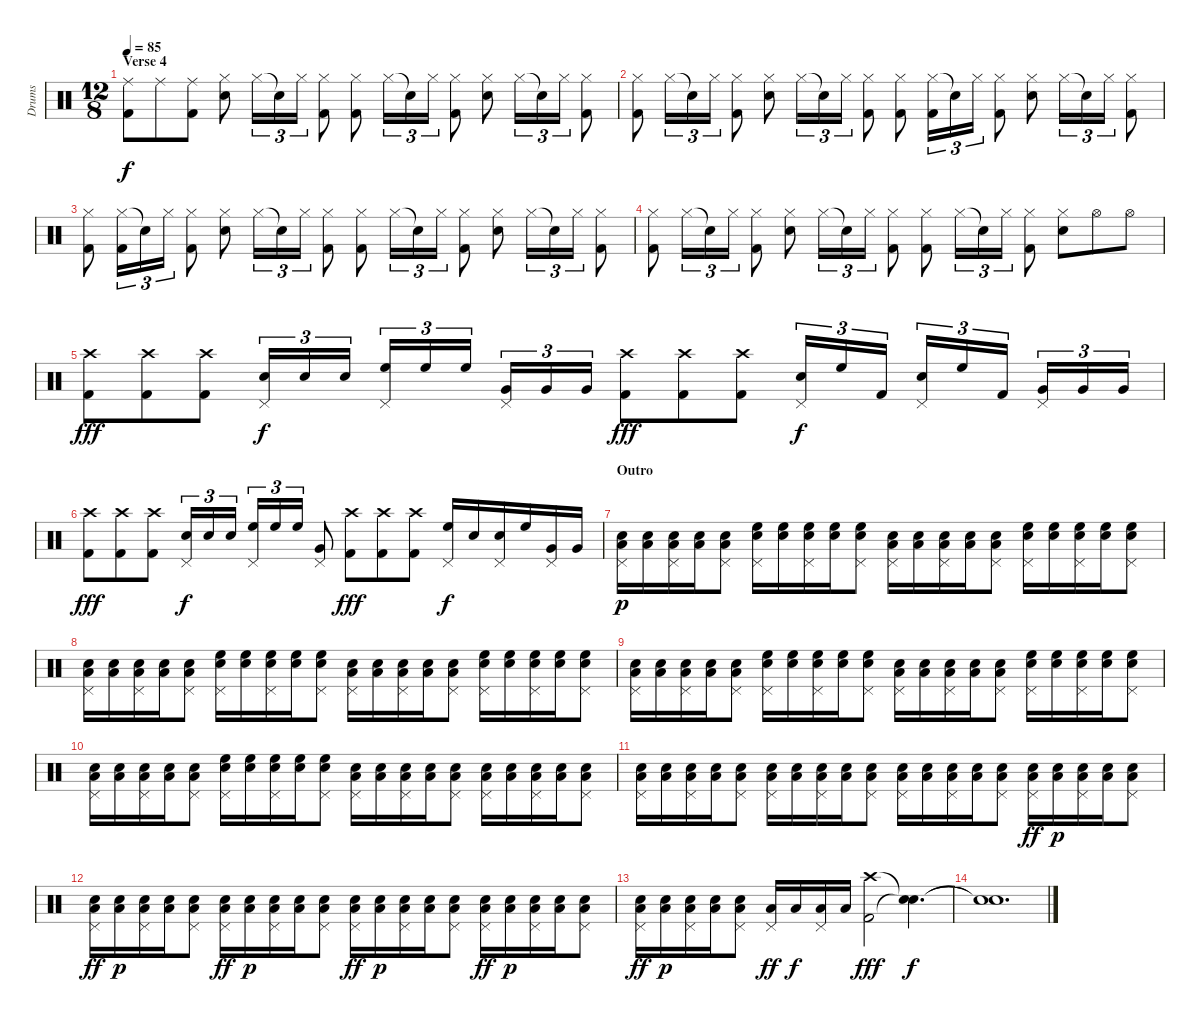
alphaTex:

\track ("Drums" "Drums") {instrument percussion}
\staff {score}
\articulation defaults
\ts (12 8)
\section ("" "Verse 4")
\tempo 85
\clef neutral
\ks c
("Ride (middle)" "Kick (hit) 2").8{dy f volume 10} "Ride (middle)".8 ("Ride (middle)" "Kick (hit) 2").8 ("Hi-Hat (closed)" "Snare (hit) 2").8 "Hi-Hat (closed)".16{tu (3 2)} "Snare (hit)"{t}.16{tu (3 2)} "Hi-Hat (closed)".16{tu (3 2)} ("Hi-Hat (closed)" "Kick (hit) 2").8 ("Hi-Hat (closed)" "Kick (hit) 2").8 "Hi-Hat (closed)".16{tu (3 2)} "Snare (hit)"{t}.16{tu (3 2)} "Hi-Hat (closed)".16{tu (3 2)} ("Hi-Hat (closed)" "Kick (hit) 2").8 ("Hi-Hat (closed)" "Snare (hit) 2").8 "Hi-Hat (closed)".16{tu (3 2)} "Snare (hit)"{t}.16{tu (3 2)} "Hi-Hat (closed)".16{tu (3 2)} ("Hi-Hat (closed)" "Kick (hit) 2").8 |
("Hi-Hat (closed)" "Kick (hit) 2").8 "Hi-Hat (closed)".16{tu (3 2)} "Snare (hit)"{t}.16{tu (3 2)} "Hi-Hat (closed)".16{tu (3 2)} ("Hi-Hat (closed)" "Kick (hit) 2").8 ("Hi-Hat (closed)" "Snare (hit) 2").8 "Hi-Hat (closed)".16{tu (3 2)} "Snare (hit)"{t}.16{tu (3 2)} "Hi-Hat (closed)".16{tu (3 2)} ("Hi-Hat (closed)" "Kick (hit) 2").8 ("Hi-Hat (closed)" "Kick (hit) 2").8 ("Hi-Hat (closed)" "Kick (hit) 2").16{tu (3 2)} "Snare (hit)"{t}.16{tu (3 2)} "Hi-Hat (closed)".16{tu (3 2)} ("Hi-Hat (closed)" "Kick (hit) 2").8 ("Hi-Hat (closed)" "Snare (hit) 2").8 "Hi-Hat (closed)".16{tu (3 2)} "Snare (hit)"{t}.16{tu (3 2)} "Hi-Hat (closed)".16{tu (3 2)} ("Hi-Hat (closed)" "Kick (hit) 2").8 |
("Hi-Hat (closed)" "Kick (hit) 2").8 ("Hi-Hat (closed)" "Kick (hit) 2").16{tu (3 2)} "Snare (hit)"{t}.16{tu (3 2)} "Hi-Hat (closed)".16{tu (3 2)} ("Hi-Hat (closed)" "Kick (hit) 2").8 ("Hi-Hat (closed)" "Snare (hit) 2").8 "Hi-Hat (closed)".16{tu (3 2)} "Snare (hit)"{t}.16{tu (3 2)} "Hi-Hat (closed)".16{tu (3 2)} ("Hi-Hat (closed)" "Kick (hit) 2").8 ("Hi-Hat (closed)" "Kick (hit) 2").8 "Hi-Hat (closed)".16{tu (3 2)} "Snare (hit)"{t}.16{tu (3 2)} "Hi-Hat (closed)".16{tu (3 2)} ("Hi-Hat (closed)" "Kick (hit) 2").8 ("Hi-Hat (closed)" "Snare (hit) 2").8 "Hi-Hat (closed)".16{tu (3 2)} "Snare (hit)"{t}.16{tu (3 2)} "Hi-Hat (closed)".16{tu (3 2)} ("Hi-Hat (closed)" "Kick (hit) 2").8 |
("Hi-Hat (closed)" "Kick (hit) 2").8 "Hi-Hat (closed)".16{tu (3 2)} "Snare (hit)"{t}.16{tu (3 2)} "Hi-Hat (closed)".16{tu (3 2)} ("Hi-Hat (closed)" "Kick (hit) 2").8 ("Hi-Hat (closed)" "Snare (hit) 2").8 "Hi-Hat (closed)".16{tu (3 2)} "Snare (hit)"{t}.16{tu (3 2)} "Hi-Hat (closed)".16{tu (3 2)} ("Hi-Hat (closed)" "Kick (hit) 2").8 ("Hi-Hat (closed)" "Kick (hit) 2").8 "Hi-Hat (closed)".16{tu (3 2)} "Snare (hit)"{t}.16{tu (3 2)} "Hi-Hat (closed)".16{tu (3 2)} ("Hi-Hat (closed)" "Kick (hit) 2").8 ("Hi-Hat (closed)" "Snare (hit) 2").8 "Hi-Hat (open)".8 "Hi-Hat (open)".8 |
("Crash high (hit)" "Kick (hit) 2").8{dy fff volume 16} ("Crash high (hit)" "Kick (hit) 2").8 ("Crash high (hit)" "Kick (hit) 2").8 ("Pedal Hi-Hat (hit)" "Snare (hit) 2").16{tu (3 2) dy f} "Snare (hit) 2".16{tu (3 2)} "Snare (hit) 2".16{tu (3 2)} ("Pedal Hi-Hat (hit)" "High Floor Tom (hit)").16{tu (3 2)} "High Floor Tom (hit)".16{tu (3 2)} "High Floor Tom (hit)".16{tu (3 2)} ("Pedal Hi-Hat (hit)" "Very Low Tom (hit)").16{tu (3 2)} "Very Low Tom (hit)".16{tu (3 2)} "Very Low Tom (hit)".16{tu (3 2)} ("Crash high (hit)" "Kick (hit) 2").8{dy fff} ("Crash high (hit)" "Kick (hit) 2").8 ("Crash high (hit)" "Kick (hit) 2").8 ("Pedal Hi-Hat (hit)" "Snare (hit) 2").16{tu (3 2) dy f} "High Floor Tom (hit)".16{tu (3 2)} "Kick (hit) 2".16{tu (3 2)} ("Pedal Hi-Hat (hit)" "Snare (hit) 2").16{tu (3 2)} "High Floor Tom (hit)".16{tu (3 2)} "Kick (hit) 2".16{tu (3 2)} ("Pedal Hi-Hat (hit)" "Very Low Tom (hit)").16{tu (3 2)} "Very Low Tom (hit)".16{tu (3 2)} "Very Low Tom (hit)".16{tu (3 2)} |
("Crash high (hit)" "Kick (hit) 2").8{dy fff} ("Crash high (hit)" "Kick (hit) 2").8 ("Crash high (hit)" "Kick (hit) 2").8 ("Pedal Hi-Hat (hit)" "Snare (hit) 2").16{tu (3 2) dy f} "Snare (hit) 2".16{tu (3 2)} "Snare (hit) 2".16{tu (3 2)} ("Pedal Hi-Hat (hit)" "High Floor Tom (hit)").16{tu (3 2)} "High Floor Tom (hit)".16{tu (3 2)} "High Floor Tom (hit)".16{tu (3 2)} ("Pedal Hi-Hat (hit)" "Very Low Tom (hit)").8 ("Crash high (hit)" "Kick (hit) 2").8{dy fff} ("Crash high (hit)" "Kick (hit) 2").8 ("Crash high (hit)" "Kick (hit) 2").8 ("Pedal Hi-Hat (hit)" "High Floor Tom (hit)").16{dy f} "Snare (hit) 2".16 ("Pedal Hi-Hat (hit)" "Snare (hit) 2").16 "High Floor Tom (hit)".16 ("Pedal Hi-Hat (hit)" "Very Low Tom (hit)").16 "Very Low Tom (hit)".16 |
\section ("" "Outro")
("Pedal Hi-Hat (hit)" "Low Floor Tom (hit)" "Snare (hit) 2").16{dy p volume 7} ("Low Floor Tom (hit)" "Snare (hit) 2").16 ("Pedal Hi-Hat (hit)" "Low Floor Tom (hit)" "Snare (hit) 2").16 ("Low Floor Tom (hit)" "Snare (hit) 2").16 ("Pedal Hi-Hat (hit)" "Low Floor Tom (hit)" "Snare (hit) 2").8 ("Pedal Hi-Hat (hit)" "High Floor Tom (hit)" "Snare (hit) 2").16 ("High Floor Tom (hit)" "Snare (hit) 2").16 ("Pedal Hi-Hat (hit)" "High Floor Tom (hit)" "Snare (hit) 2").16 ("High Floor Tom (hit)" "Snare (hit) 2").16 ("Pedal Hi-Hat (hit)" "High Floor Tom (hit)" "Snare (hit) 2").8 ("Pedal Hi-Hat (hit)" "Low Floor Tom (hit)" "Snare (hit) 2").16 ("Low Floor Tom (hit)" "Snare (hit) 2").16 ("Pedal Hi-Hat (hit)" "Low Floor Tom (hit)" "Snare (hit) 2").16 ("Low Floor Tom (hit)" "Snare (hit) 2").16 ("Pedal Hi-Hat (hit)" "Low Floor Tom (hit)" "Snare (hit) 2").8 ("Pedal Hi-Hat (hit)" "High Floor Tom (hit)" "Snare (hit) 2").16 ("High Floor Tom (hit)" "Snare (hit) 2").16 ("Pedal Hi-Hat (hit)" "High Floor Tom (hit)" "Snare (hit) 2").16 ("High Floor Tom (hit)" "Snare (hit) 2").16 ("Pedal Hi-Hat (hit)" "High Floor Tom (hit)" "Snare (hit) 2").8 |
("Pedal Hi-Hat (hit)" "Low Floor Tom (hit)" "Snare (hit) 2").16 ("Low Floor Tom (hit)" "Snare (hit) 2").16 ("Pedal Hi-Hat (hit)" "Low Floor Tom (hit)" "Snare (hit) 2").16 ("Low Floor Tom (hit)" "Snare (hit) 2").16 ("Pedal Hi-Hat (hit)" "Low Floor Tom (hit)" "Snare (hit) 2").8 ("Pedal Hi-Hat (hit)" "High Floor Tom (hit)" "Snare (hit) 2").16 ("High Floor Tom (hit)" "Snare (hit) 2").16 ("Pedal Hi-Hat (hit)" "High Floor Tom (hit)" "Snare (hit) 2").16 ("High Floor Tom (hit)" "Snare (hit) 2").16 ("Pedal Hi-Hat (hit)" "High Floor Tom (hit)" "Snare (hit) 2").8 ("Pedal Hi-Hat (hit)" "Low Floor Tom (hit)" "Snare (hit) 2").16 ("Low Floor Tom (hit)" "Snare (hit) 2").16 ("Pedal Hi-Hat (hit)" "Low Floor Tom (hit)" "Snare (hit) 2").16 ("Low Floor Tom (hit)" "Snare (hit) 2").16 ("Pedal Hi-Hat (hit)" "Low Floor Tom (hit)" "Snare (hit) 2").8 ("Pedal Hi-Hat (hit)" "High Floor Tom (hit)" "Snare (hit) 2").16 ("High Floor Tom (hit)" "Snare (hit) 2").16 ("Pedal Hi-Hat (hit)" "High Floor Tom (hit)" "Snare (hit) 2").16 ("High Floor Tom (hit)" "Snare (hit) 2").16 ("Pedal Hi-Hat (hit)" "High Floor Tom (hit)" "Snare (hit) 2").8 |
("Pedal Hi-Hat (hit)" "Low Floor Tom (hit)" "Snare (hit) 2").16 ("Low Floor Tom (hit)" "Snare (hit) 2").16 ("Pedal Hi-Hat (hit)" "Low Floor Tom (hit)" "Snare (hit) 2").16 ("Low Floor Tom (hit)" "Snare (hit) 2").16 ("Pedal Hi-Hat (hit)" "Low Floor Tom (hit)" "Snare (hit) 2").8 ("Pedal Hi-Hat (hit)" "High Floor Tom (hit)" "Snare (hit) 2").16 ("High Floor Tom (hit)" "Snare (hit) 2").16 ("Pedal Hi-Hat (hit)" "High Floor Tom (hit)" "Snare (hit) 2").16 ("High Floor Tom (hit)" "Snare (hit) 2").16 ("Pedal Hi-Hat (hit)" "High Floor Tom (hit)" "Snare (hit) 2").8 ("Pedal Hi-Hat (hit)" "Low Floor Tom (hit)" "Snare (hit) 2").16 ("Low Floor Tom (hit)" "Snare (hit) 2").16 ("Pedal Hi-Hat (hit)" "Low Floor Tom (hit)" "Snare (hit) 2").16 ("Low Floor Tom (hit)" "Snare (hit) 2").16 ("Pedal Hi-Hat (hit)" "Low Floor Tom (hit)" "Snare (hit) 2").8 ("Pedal Hi-Hat (hit)" "High Floor Tom (hit)" "Snare (hit) 2").16 ("High Floor Tom (hit)" "Snare (hit) 2").16 ("Pedal Hi-Hat (hit)" "High Floor Tom (hit)" "Snare (hit) 2").16 ("High Floor Tom (hit)" "Snare (hit) 2").16 ("Pedal Hi-Hat (hit)" "High Floor Tom (hit)" "Snare (hit) 2").8 |
("Pedal Hi-Hat (hit)" "Low Floor Tom (hit)" "Snare (hit) 2").16 ("Low Floor Tom (hit)" "Snare (hit) 2").16 ("Pedal Hi-Hat (hit)" "Low Floor Tom (hit)" "Snare (hit) 2").16 ("Low Floor Tom (hit)" "Snare (hit) 2").16 ("Pedal Hi-Hat (hit)" "Low Floor Tom (hit)" "Snare (hit) 2").8 ("Pedal Hi-Hat (hit)" "High Floor Tom (hit)" "Snare (hit) 2").16 ("High Floor Tom (hit)" "Snare (hit) 2").16 ("Pedal Hi-Hat (hit)" "High Floor Tom (hit)" "Snare (hit) 2").16 ("High Floor Tom (hit)" "Snare (hit) 2").16 ("Pedal Hi-Hat (hit)" "High Floor Tom (hit)" "Snare (hit) 2").8 ("Pedal Hi-Hat (hit)" "Low Floor Tom (hit)" "Snare (hit) 2").16 ("Low Floor Tom (hit)" "Snare (hit) 2").16 ("Pedal Hi-Hat (hit)" "Low Floor Tom (hit)" "Snare (hit) 2").16 ("Low Floor Tom (hit)" "Snare (hit) 2").16 ("Pedal Hi-Hat (hit)" "Low Floor Tom (hit)" "Snare (hit) 2").8 ("Pedal Hi-Hat (hit)" "Low Floor Tom (hit)" "Snare (hit) 2").16 ("Low Floor Tom (hit)" "Snare (hit) 2").16 ("Pedal Hi-Hat (hit)" "Low Floor Tom (hit)" "Snare (hit) 2").16 ("Low Floor Tom (hit)" "Snare (hit) 2").16 ("Pedal Hi-Hat (hit)" "Low Floor Tom (hit)" "Snare (hit) 2").8 |
("Pedal Hi-Hat (hit)" "Low Floor Tom (hit)" "Snare (hit) 2").16 ("Low Floor Tom (hit)" "Snare (hit) 2").16 ("Pedal Hi-Hat (hit)" "Low Floor Tom (hit)" "Snare (hit) 2").16 ("Low Floor Tom (hit)" "Snare (hit) 2").16 ("Pedal Hi-Hat (hit)" "Low Floor Tom (hit)" "Snare (hit) 2").8 ("Pedal Hi-Hat (hit)" "Low Floor Tom (hit)" "Snare (hit) 2").16 ("Low Floor Tom (hit)" "Snare (hit) 2").16 ("Pedal Hi-Hat (hit)" "Low Floor Tom (hit)" "Snare (hit) 2").16 ("Low Floor Tom (hit)" "Snare (hit) 2").16 ("Pedal Hi-Hat (hit)" "Low Floor Tom (hit)" "Snare (hit) 2").8 ("Pedal Hi-Hat (hit)" "Low Floor Tom (hit)" "Snare (hit) 2").16 ("Low Floor Tom (hit)" "Snare (hit) 2").16 ("Pedal Hi-Hat (hit)" "Low Floor Tom (hit)" "Snare (hit) 2").16 ("Low Floor Tom (hit)" "Snare (hit) 2").16 ("Pedal Hi-Hat (hit)" "Low Floor Tom (hit)" "Snare (hit) 2").8 ("Pedal Hi-Hat (hit)" "Low Floor Tom (hit)" "Snare (hit) 2").16{dy ff} ("Low Floor Tom (hit)" "Snare (hit) 2").16{dy p} ("Pedal Hi-Hat (hit)" "Low Floor Tom (hit)" "Snare (hit) 2").16 ("Low Floor Tom (hit)" "Snare (hit) 2").16 ("Pedal Hi-Hat (hit)" "Low Floor Tom (hit)" "Snare (hit) 2").8 |
("Pedal Hi-Hat (hit)" "Low Floor Tom (hit)" "Snare (hit) 2").16{dy ff} ("Low Floor Tom (hit)" "Snare (hit) 2").16{dy p} ("Pedal Hi-Hat (hit)" "Low Floor Tom (hit)" "Snare (hit) 2").16 ("Low Floor Tom (hit)" "Snare (hit) 2").16 ("Pedal Hi-Hat (hit)" "Low Floor Tom (hit)" "Snare (hit) 2").8 ("Pedal Hi-Hat (hit)" "Low Floor Tom (hit)" "Snare (hit) 2").16{dy ff} ("Low Floor Tom (hit)" "Snare (hit) 2").16{dy p} ("Pedal Hi-Hat (hit)" "Low Floor Tom (hit)" "Snare (hit) 2").16 ("Low Floor Tom (hit)" "Snare (hit) 2").16 ("Pedal Hi-Hat (hit)" "Low Floor Tom (hit)" "Snare (hit) 2").8 ("Pedal Hi-Hat (hit)" "Low Floor Tom (hit)" "Snare (hit) 2").16{dy ff} ("Low Floor Tom (hit)" "Snare (hit) 2").16{dy p} ("Pedal Hi-Hat (hit)" "Low Floor Tom (hit)" "Snare (hit) 2").16 ("Low Floor Tom (hit)" "Snare (hit) 2").16 ("Pedal Hi-Hat (hit)" "Low Floor Tom (hit)" "Snare (hit) 2").8 ("Pedal Hi-Hat (hit)" "Low Floor Tom (hit)" "Snare (hit) 2").16{dy ff} ("Low Floor Tom (hit)" "Snare (hit) 2").16{dy p} ("Pedal Hi-Hat (hit)" "Low Floor Tom (hit)" "Snare (hit) 2").16 ("Low Floor Tom (hit)" "Snare (hit) 2").16 ("Pedal Hi-Hat (hit)" "Low Floor Tom (hit)" "Snare (hit) 2").8 |
("Pedal Hi-Hat (hit)" "Low Floor Tom (hit)" "Snare (hit) 2").16{dy ff} ("Low Floor Tom (hit)" "Snare (hit) 2").16{dy p} ("Pedal Hi-Hat (hit)" "Low Floor Tom (hit)" "Snare (hit) 2").16 ("Low Floor Tom (hit)" "Snare (hit) 2").16 ("Pedal Hi-Hat (hit)" "Low Floor Tom (hit)" "Snare (hit) 2").8 ("Pedal Hi-Hat (hit)" "Low Floor Tom (hit)").16{dy ff} "Low Floor Tom (hit)".16{dy f} ("Pedal Hi-Hat (hit)" "Low Floor Tom (hit)").16 "Low Floor Tom (hit)".16 ("Crash high (hit)" "Kick (hit) 2").2{dy fff} ("Snare (hit)"{t} "Snare (hit)"{t}).4{d dy f} |
("Snare (hit)"{t} "Snare (hit)"{t}).1{d volume 0}
